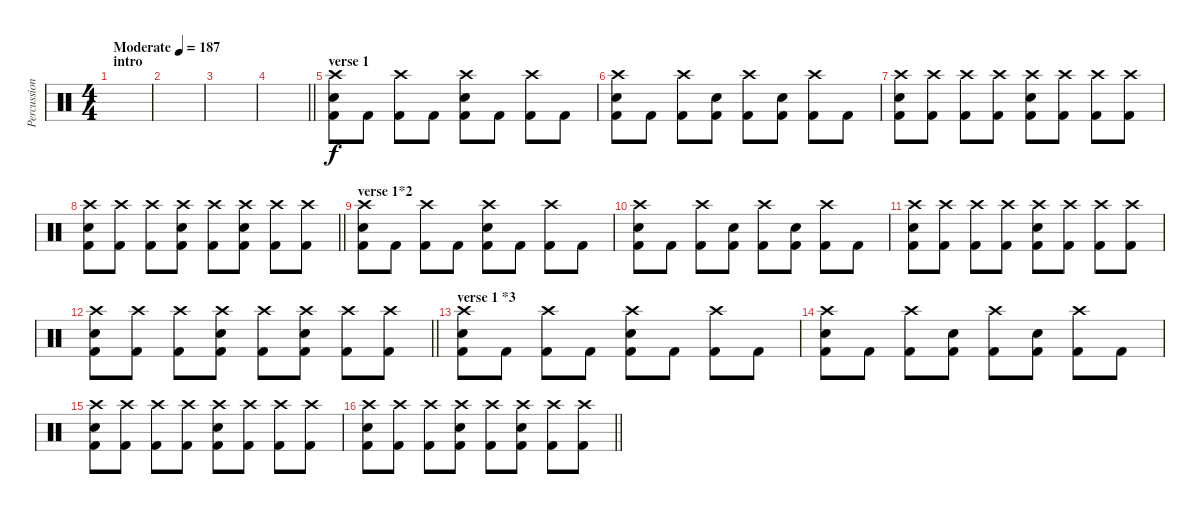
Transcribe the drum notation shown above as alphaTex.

\track ("Percussions" "Percussion") {instrument percussion}
\staff {score}
\articulation defaults
\ts (4 4)
\section ("" "intro")
\tempo (187 "Moderate")
\clef neutral
\ks c
|
|
|
\barLineRight lightlight
|
\section ("" "verse 1")
("Crash high (hit)" "Electric Snare (hit)" "Kick (hit) 2").8 "Kick (hit) 2".8 ("Crash high (hit)" "Kick (hit) 2").8 "Kick (hit) 2".8 ("Crash high (hit)" "Electric Snare (hit)" "Kick (hit) 2").8 "Kick (hit) 2".8 ("Crash high (hit)" "Kick (hit) 2").8 "Kick (hit) 2".8 |
("Crash high (hit)" "Electric Snare (hit)" "Kick (hit) 2").8 "Kick (hit) 2".8 ("Crash high (hit)" "Kick (hit) 2").8 ("Electric Snare (hit)" "Kick (hit) 2").8 ("Crash high (hit)" "Kick (hit) 2").8 ("Electric Snare (hit)" "Kick (hit) 2").8 ("Crash high (hit)" "Kick (hit) 2").8 "Kick (hit) 2".8 |
("Crash high (hit)" "Electric Snare (hit)" "Kick (hit) 2").8 ("Crash high (hit)" "Kick (hit) 2").8 ("Crash high (hit)" "Kick (hit) 2").8 ("Crash high (hit)" "Kick (hit) 2").8 ("Crash high (hit)" "Electric Snare (hit)" "Kick (hit) 2").8 ("Crash high (hit)" "Kick (hit) 2").8 ("Crash high (hit)" "Kick (hit) 2").8 ("Crash high (hit)" "Kick (hit) 2").8 |
\barLineRight lightlight
("Crash high (hit)" "Electric Snare (hit)" "Kick (hit) 2").8 ("Crash high (hit)" "Kick (hit) 2").8 ("Crash high (hit)" "Kick (hit) 2").8 ("Crash high (hit)" "Electric Snare (hit)" "Kick (hit) 2").8 ("Crash high (hit)" "Kick (hit) 2").8 ("Crash high (hit)" "Electric Snare (hit)" "Kick (hit) 2").8 ("Crash high (hit)" "Kick (hit) 2").8 ("Crash high (hit)" "Kick (hit) 2").8 |
\section ("" "verse 1*2")
("Crash high (hit)" "Electric Snare (hit)" "Kick (hit) 2").8 "Kick (hit) 2".8 ("Crash high (hit)" "Kick (hit) 2").8 "Kick (hit) 2".8 ("Crash high (hit)" "Electric Snare (hit)" "Kick (hit) 2").8 "Kick (hit) 2".8 ("Crash high (hit)" "Kick (hit) 2").8 "Kick (hit) 2".8 |
("Crash high (hit)" "Electric Snare (hit)" "Kick (hit) 2").8 "Kick (hit) 2".8 ("Crash high (hit)" "Kick (hit) 2").8 ("Electric Snare (hit)" "Kick (hit) 2").8 ("Crash high (hit)" "Kick (hit) 2").8 ("Electric Snare (hit)" "Kick (hit) 2").8 ("Crash high (hit)" "Kick (hit) 2").8 "Kick (hit) 2".8 |
("Crash high (hit)" "Electric Snare (hit)" "Kick (hit) 2").8 ("Crash high (hit)" "Kick (hit) 2").8 ("Crash high (hit)" "Kick (hit) 2").8 ("Crash high (hit)" "Kick (hit) 2").8 ("Crash high (hit)" "Electric Snare (hit)" "Kick (hit) 2").8 ("Crash high (hit)" "Kick (hit) 2").8 ("Crash high (hit)" "Kick (hit) 2").8 ("Crash high (hit)" "Kick (hit) 2").8 |
\barLineRight lightlight
("Crash high (hit)" "Electric Snare (hit)" "Kick (hit) 2").8 ("Crash high (hit)" "Kick (hit) 2").8 ("Crash high (hit)" "Kick (hit) 2").8 ("Crash high (hit)" "Electric Snare (hit)" "Kick (hit) 2").8 ("Crash high (hit)" "Kick (hit) 2").8 ("Crash high (hit)" "Electric Snare (hit)" "Kick (hit) 2").8 ("Crash high (hit)" "Kick (hit) 2").8 ("Crash high (hit)" "Kick (hit) 2").8 |
\section ("" "verse 1 *3")
("Crash high (hit)" "Electric Snare (hit)" "Kick (hit) 2").8 "Kick (hit) 2".8 ("Crash high (hit)" "Kick (hit) 2").8 "Kick (hit) 2".8 ("Crash high (hit)" "Electric Snare (hit)" "Kick (hit) 2").8 "Kick (hit) 2".8 ("Crash high (hit)" "Kick (hit) 2").8 "Kick (hit) 2".8 |
("Crash high (hit)" "Electric Snare (hit)" "Kick (hit) 2").8 "Kick (hit) 2".8 ("Crash high (hit)" "Kick (hit) 2").8 ("Electric Snare (hit)" "Kick (hit) 2").8 ("Crash high (hit)" "Kick (hit) 2").8 ("Electric Snare (hit)" "Kick (hit) 2").8 ("Crash high (hit)" "Kick (hit) 2").8 "Kick (hit) 2".8 |
("Crash high (hit)" "Electric Snare (hit)" "Kick (hit) 2").8 ("Crash high (hit)" "Kick (hit) 2").8 ("Crash high (hit)" "Kick (hit) 2").8 ("Crash high (hit)" "Kick (hit) 2").8 ("Crash high (hit)" "Electric Snare (hit)" "Kick (hit) 2").8 ("Crash high (hit)" "Kick (hit) 2").8 ("Crash high (hit)" "Kick (hit) 2").8 ("Crash high (hit)" "Kick (hit) 2").8 |
\barLineRight lightlight
("Crash high (hit)" "Electric Snare (hit)" "Kick (hit) 2").8 ("Crash high (hit)" "Kick (hit) 2").8 ("Crash high (hit)" "Kick (hit) 2").8 ("Crash high (hit)" "Electric Snare (hit)" "Kick (hit) 2").8 ("Crash high (hit)" "Kick (hit) 2").8 ("Crash high (hit)" "Electric Snare (hit)" "Kick (hit) 2").8 ("Crash high (hit)" "Kick (hit) 2").8 ("Crash high (hit)" "Kick (hit) 2").8
